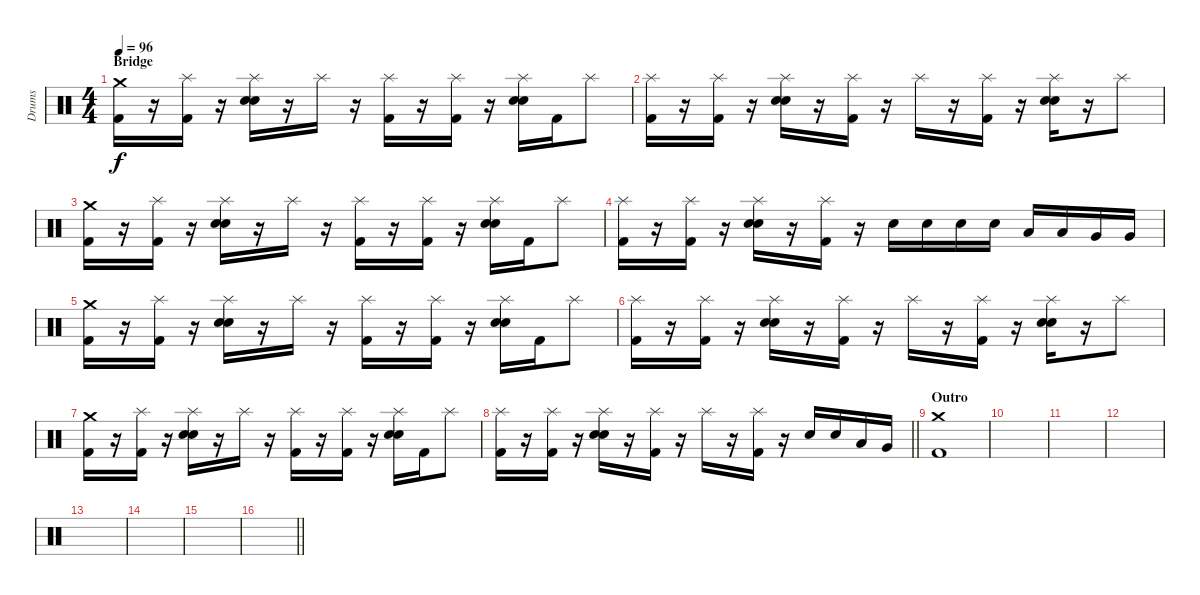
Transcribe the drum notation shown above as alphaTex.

\track ("Drums" "Drums") {instrument percussion}
\staff {score}
\articulation defaults
\ts (4 4)
\section ("" "Bridge")
\tempo 96
\clef neutral
\ks c
("Crash medium (hit)" "Kick (hit) 2").16{dy f} r.16 ("Splash (hit)" "Kick (hit) 2").16 r.16 ("Splash (hit)" "Electric Snare (hit)" "Snare (hit) 2").16 r.16 "Splash (hit)".16 r.16 ("Splash (hit)" "Kick (hit) 2").16 r.16 ("Splash (hit)" "Kick (hit) 2").16 r.16 ("Splash (hit)" "Electric Snare (hit)" "Snare (hit) 2").16 "Kick (hit) 2".16 "Splash (hit)".8 |
("Splash (hit)" "Kick (hit) 2").16 r.16 ("Splash (hit)" "Kick (hit) 2").16 r.16 ("Splash (hit)" "Electric Snare (hit)" "Snare (hit) 2").16 r.16 ("Splash (hit)" "Kick (hit) 2").16 r.16 "Splash (hit)".16 r.16 ("Splash (hit)" "Kick (hit) 2").16 r.16 ("Splash (hit)" "Electric Snare (hit)" "Snare (hit) 2").16 r.16 "Splash (hit)".8 |
("Crash medium (hit)" "Kick (hit) 2").16 r.16 ("Splash (hit)" "Kick (hit) 2").16 r.16 ("Splash (hit)" "Electric Snare (hit)" "Snare (hit) 2").16 r.16 "Splash (hit)".16 r.16 ("Splash (hit)" "Kick (hit) 2").16 r.16 ("Splash (hit)" "Kick (hit) 2").16 r.16 ("Splash (hit)" "Electric Snare (hit)" "Snare (hit) 2").16 "Kick (hit) 2".16 "Splash (hit)".8 |
("Splash (hit)" "Kick (hit) 2").16 r.16 ("Splash (hit)" "Kick (hit) 2").16 r.16 ("Splash (hit)" "Electric Snare (hit)" "Snare (hit) 2").16 r.16 ("Splash (hit)" "Kick (hit) 2").16 r.16 "Electric Snare (hit)".16 "Electric Snare (hit)".16 "Electric Snare (hit)".16 "Electric Snare (hit)".16 "Low Tom (hit)".16 "Low Tom (hit)".16 "Very Low Tom (hit)".16 "Very Low Tom (hit)".16 |
("Crash medium (hit)" "Kick (hit) 2").16 r.16 ("Splash (hit)" "Kick (hit) 2").16 r.16 ("Splash (hit)" "Electric Snare (hit)" "Snare (hit) 2").16 r.16 "Splash (hit)".16 r.16 ("Splash (hit)" "Kick (hit) 2").16 r.16 ("Splash (hit)" "Kick (hit) 2").16 r.16 ("Splash (hit)" "Electric Snare (hit)" "Snare (hit) 2").16 "Kick (hit) 2".16 "Splash (hit)".8 |
("Splash (hit)" "Kick (hit) 2").16 r.16 ("Splash (hit)" "Kick (hit) 2").16 r.16 ("Splash (hit)" "Electric Snare (hit)" "Snare (hit) 2").16 r.16 ("Splash (hit)" "Kick (hit) 2").16 r.16 "Splash (hit)".16 r.16 ("Splash (hit)" "Kick (hit) 2").16 r.16 ("Splash (hit)" "Electric Snare (hit)" "Snare (hit) 2").16 r.16 "Splash (hit)".8 |
("Crash medium (hit)" "Kick (hit) 2").16 r.16 ("Splash (hit)" "Kick (hit) 2").16 r.16 ("Splash (hit)" "Electric Snare (hit)" "Snare (hit) 2").16 r.16 "Splash (hit)".16 r.16 ("Splash (hit)" "Kick (hit) 2").16 r.16 ("Splash (hit)" "Kick (hit) 2").16 r.16 ("Splash (hit)" "Electric Snare (hit)" "Snare (hit) 2").16 "Kick (hit) 2".16 "Splash (hit)".8 |
\barLineRight lightlight
("Splash (hit)" "Kick (hit) 2").16 r.16 ("Splash (hit)" "Kick (hit) 2").16 r.16 ("Splash (hit)" "Electric Snare (hit)" "Snare (hit) 2").16 r.16 ("Splash (hit)" "Kick (hit) 2").16 r.16 "Splash (hit)".16 r.16 ("Splash (hit)" "Kick (hit) 2").16 r.16 "Electric Snare (hit)".16 "Electric Snare (hit)".16 "Low Tom (hit)".16 "Very Low Tom (hit)".16 |
\section ("" "Outro")
("Crash medium (hit)" "Kick (hit) 2").1 |
|
|
|
|
|
|
\barLineRight lightlight
